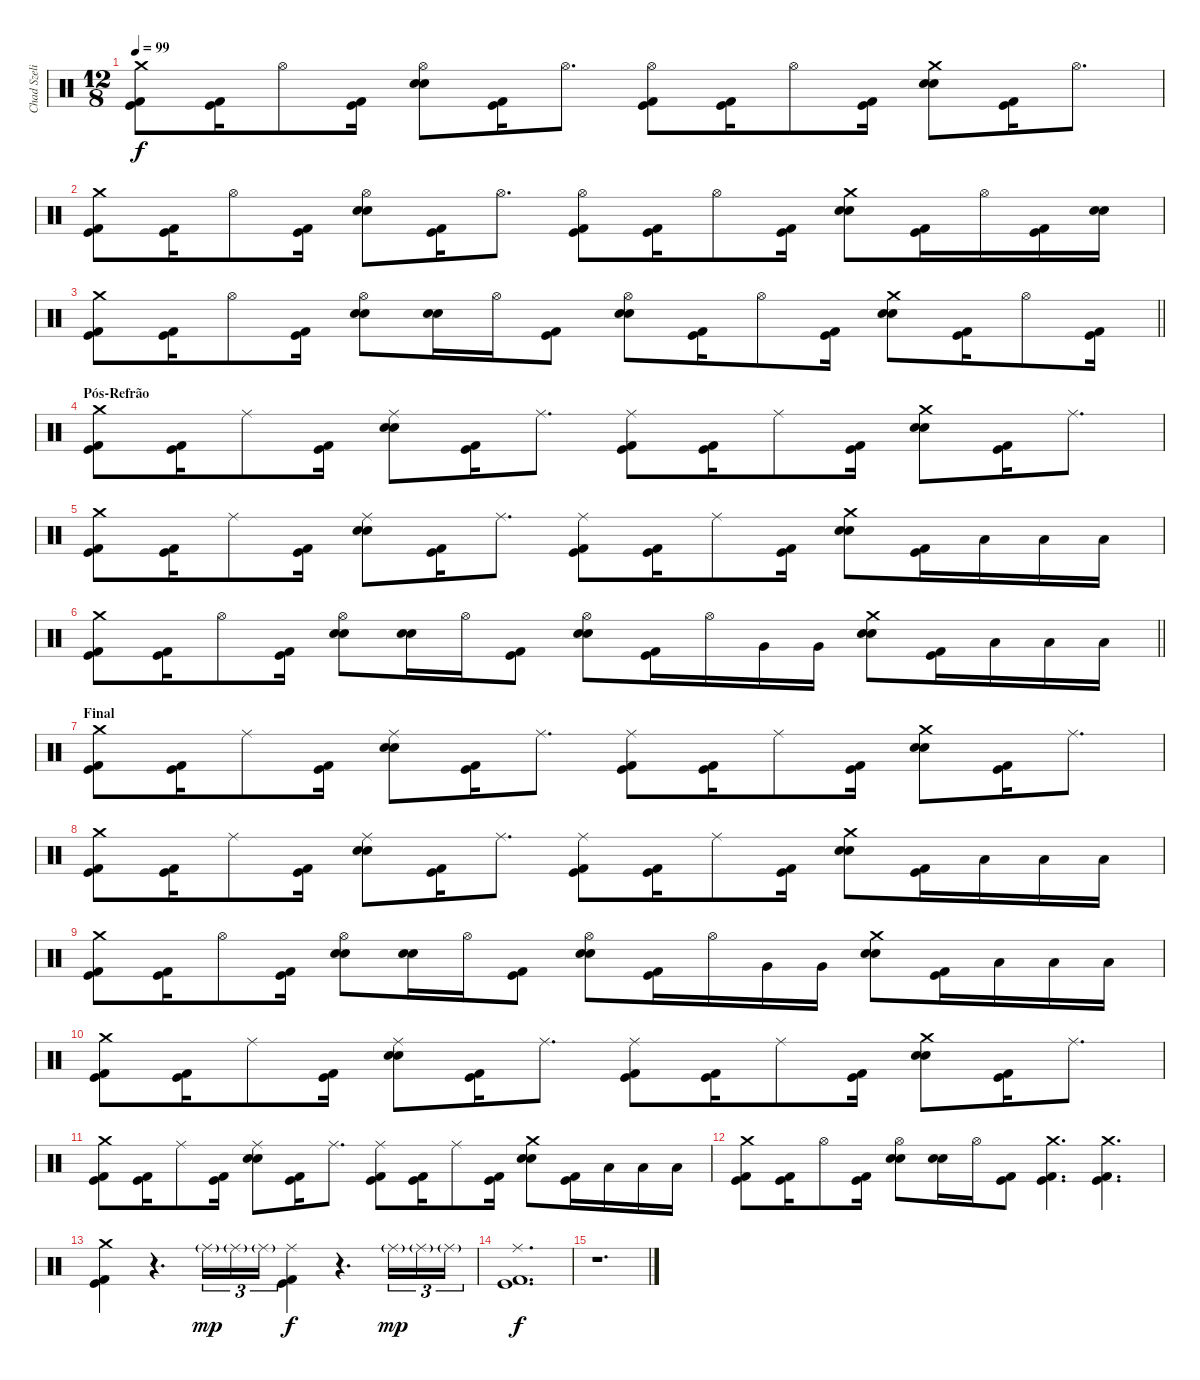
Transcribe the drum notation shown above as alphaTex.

\track ("Chad Szeliga" "Chad Szeli") {instrument percussion}
\staff {score}
\articulation defaults
\ts (12 8)
\tempo 99
\clef neutral
\ks c
("Crash medium (hit)" "Kick (hit) 2" "Kick (hit)").8{dy f} ("Kick (hit) 2" "Kick (hit)").16 "Hi-Hat (open)".8 ("Kick (hit) 2" "Kick (hit)").16 ("Snare (hit) 2" "Snare (hit) 2" "Hi-Hat (open)").8 ("Kick (hit) 2" "Kick (hit)").16 "Hi-Hat (open)".8{d} ("Kick (hit) 2" "Kick (hit)" "Hi-Hat (open)").8 ("Kick (hit) 2" "Kick (hit)").16 "Hi-Hat (open)".8 ("Kick (hit) 2" "Kick (hit)").16 ("Crash medium (hit)" "Snare (hit) 2" "Snare (hit) 2").8 ("Kick (hit) 2" "Kick (hit)").16 "Hi-Hat (open)".8{d} |
("Crash medium (hit)" "Kick (hit) 2" "Kick (hit)").8 ("Kick (hit) 2" "Kick (hit)").16 "Hi-Hat (open)".8 ("Kick (hit) 2" "Kick (hit)").16 ("Snare (hit) 2" "Snare (hit) 2" "Hi-Hat (open)").8 ("Kick (hit) 2" "Kick (hit)").16 "Hi-Hat (open)".8{d} ("Kick (hit) 2" "Kick (hit)" "Hi-Hat (open)").8 ("Kick (hit) 2" "Kick (hit)").16 "Hi-Hat (open)".8 ("Kick (hit) 2" "Kick (hit)").16 ("Crash medium (hit)" "Snare (hit) 2" "Snare (hit) 2").8 ("Kick (hit) 2" "Kick (hit)").16 "Hi-Hat (open)".16 ("Kick (hit) 2" "Kick (hit)").16 ("Snare (hit) 2" "Snare (hit) 2").16 |
\barLineRight lightlight
("Crash medium (hit)" "Kick (hit) 2" "Kick (hit)").8 ("Kick (hit) 2" "Kick (hit)").16 "Hi-Hat (open)".8 ("Kick (hit) 2" "Kick (hit)").16 ("Snare (hit) 2" "Snare (hit) 2" "Hi-Hat (open)").8 ("Snare (hit) 2" "Snare (hit) 2").16 "Hi-Hat (open)".16 ("Kick (hit) 2" "Kick (hit)").8 ("Snare (hit) 2" "Snare (hit) 2" "Hi-Hat (open)").8 ("Kick (hit) 2" "Kick (hit)").16 "Hi-Hat (open)".8 ("Kick (hit) 2" "Kick (hit)").16 ("Crash medium (hit)" "Snare (hit) 2" "Snare (hit) 2").8 ("Kick (hit) 2" "Kick (hit)").16 "Hi-Hat (open)".8 ("Kick (hit) 2" "Kick (hit)").16 |
\section ("" "Pós-Refrão")
("Crash medium (hit)" "Kick (hit) 2" "Kick (hit)").8 ("Kick (hit) 2" "Kick (hit)").16 "Ride (middle)".8 ("Kick (hit) 2" "Kick (hit)").16 ("Ride (middle)" "Snare (hit) 2" "Snare (hit) 2").8 ("Kick (hit) 2" "Kick (hit)").16 "Ride (middle)".8{d} ("Ride (middle)" "Kick (hit) 2" "Kick (hit)").8 ("Kick (hit) 2" "Kick (hit)").16 "Ride (middle)".8 ("Kick (hit) 2" "Kick (hit)").16 ("Crash medium (hit)" "Snare (hit) 2" "Snare (hit) 2").8 ("Kick (hit) 2" "Kick (hit)").16 "Ride (middle)".8{d} |
("Crash medium (hit)" "Kick (hit) 2" "Kick (hit)").8 ("Kick (hit) 2" "Kick (hit)").16 "Ride (middle)".8 ("Kick (hit) 2" "Kick (hit)").16 ("Ride (middle)" "Snare (hit) 2" "Snare (hit) 2").8 ("Kick (hit) 2" "Kick (hit)").16 "Ride (middle)".8{d} ("Ride (middle)" "Kick (hit) 2" "Kick (hit)").8 ("Kick (hit) 2" "Kick (hit)").16 "Ride (middle)".8 ("Kick (hit) 2" "Kick (hit)").16 ("Crash medium (hit)" "Snare (hit) 2" "Snare (hit) 2").8 ("Kick (hit) 2" "Kick (hit)").16 "Low Tom (hit)".16 "Low Tom (hit)".16 "Low Tom (hit)".16 |
\barLineRight lightlight
("Crash medium (hit)" "Kick (hit) 2" "Kick (hit)").8 ("Kick (hit) 2" "Kick (hit)").16 "Hi-Hat (open)".8 ("Kick (hit) 2" "Kick (hit)").16 ("Snare (hit) 2" "Snare (hit) 2" "Hi-Hat (open)").8 ("Snare (hit) 2" "Snare (hit) 2").16 "Hi-Hat (open)".16 ("Kick (hit) 2" "Kick (hit)").8 ("Snare (hit) 2" "Snare (hit) 2" "Hi-Hat (open)").8 ("Kick (hit) 2" "Kick (hit)").16 "Hi-Hat (open)".16 "Very Low Tom (hit)".16 "Very Low Tom (hit)".16 ("Crash medium (hit)" "Snare (hit) 2" "Snare (hit) 2").8 ("Kick (hit) 2" "Kick (hit)").16 "Low Tom (hit)".16 "Low Tom (hit)".16 "Low Tom (hit)".16 |
\section ("" "Final")
("Crash medium (hit)" "Kick (hit) 2" "Kick (hit)").8 ("Kick (hit) 2" "Kick (hit)").16 "Ride (middle)".8 ("Kick (hit) 2" "Kick (hit)").16 ("Ride (middle)" "Snare (hit) 2" "Snare (hit) 2").8 ("Kick (hit) 2" "Kick (hit)").16 "Ride (middle)".8{d} ("Ride (middle)" "Kick (hit) 2" "Kick (hit)").8 ("Kick (hit) 2" "Kick (hit)").16 "Ride (middle)".8 ("Kick (hit) 2" "Kick (hit)").16 ("Crash medium (hit)" "Snare (hit) 2" "Snare (hit) 2").8 ("Kick (hit) 2" "Kick (hit)").16 "Ride (middle)".8{d} |
("Crash medium (hit)" "Kick (hit) 2" "Kick (hit)").8 ("Kick (hit) 2" "Kick (hit)").16 "Ride (middle)".8 ("Kick (hit) 2" "Kick (hit)").16 ("Ride (middle)" "Snare (hit) 2" "Snare (hit) 2").8 ("Kick (hit) 2" "Kick (hit)").16 "Ride (middle)".8{d} ("Ride (middle)" "Kick (hit) 2" "Kick (hit)").8 ("Kick (hit) 2" "Kick (hit)").16 "Ride (middle)".8 ("Kick (hit) 2" "Kick (hit)").16 ("Crash medium (hit)" "Snare (hit) 2" "Snare (hit) 2").8 ("Kick (hit) 2" "Kick (hit)").16 "Low Tom (hit)".16 "Low Tom (hit)".16 "Low Tom (hit)".16 |
("Crash medium (hit)" "Kick (hit) 2" "Kick (hit)").8 ("Kick (hit) 2" "Kick (hit)").16 "Hi-Hat (open)".8 ("Kick (hit) 2" "Kick (hit)").16 ("Snare (hit) 2" "Snare (hit) 2" "Hi-Hat (open)").8 ("Snare (hit) 2" "Snare (hit) 2").16 "Hi-Hat (open)".16 ("Kick (hit) 2" "Kick (hit)").8 ("Snare (hit) 2" "Snare (hit) 2" "Hi-Hat (open)").8 ("Kick (hit) 2" "Kick (hit)").16 "Hi-Hat (open)".16 "Very Low Tom (hit)".16 "Very Low Tom (hit)".16 ("Crash medium (hit)" "Snare (hit) 2" "Snare (hit) 2").8 ("Kick (hit) 2" "Kick (hit)").16 "Low Tom (hit)".16 "Low Tom (hit)".16 "Low Tom (hit)".16 |
("Crash medium (hit)" "Kick (hit) 2" "Kick (hit)").8 ("Kick (hit) 2" "Kick (hit)").16 "Ride (middle)".8 ("Kick (hit) 2" "Kick (hit)").16 ("Ride (middle)" "Snare (hit) 2" "Snare (hit) 2").8 ("Kick (hit) 2" "Kick (hit)").16 "Ride (middle)".8{d} ("Ride (middle)" "Kick (hit) 2" "Kick (hit)").8 ("Kick (hit) 2" "Kick (hit)").16 "Ride (middle)".8 ("Kick (hit) 2" "Kick (hit)").16 ("Crash medium (hit)" "Snare (hit) 2" "Snare (hit) 2").8 ("Kick (hit) 2" "Kick (hit)").16 "Ride (middle)".8{d} |
("Crash medium (hit)" "Kick (hit) 2" "Kick (hit)").8 ("Kick (hit) 2" "Kick (hit)").16 "Ride (middle)".8 ("Kick (hit) 2" "Kick (hit)").16 ("Ride (middle)" "Snare (hit) 2" "Snare (hit) 2").8 ("Kick (hit) 2" "Kick (hit)").16 "Ride (middle)".8{d} ("Ride (middle)" "Kick (hit) 2" "Kick (hit)").8 ("Kick (hit) 2" "Kick (hit)").16 "Ride (middle)".8 ("Kick (hit) 2" "Kick (hit)").16 ("Crash medium (hit)" "Snare (hit) 2" "Snare (hit) 2").8 ("Kick (hit) 2" "Kick (hit)").16 "Low Tom (hit)".16 "Low Tom (hit)".16 "Low Tom (hit)".16 |
("Crash medium (hit)" "Kick (hit) 2" "Kick (hit)").8 ("Kick (hit) 2" "Kick (hit)").16 "Hi-Hat (open)".8 ("Kick (hit) 2" "Kick (hit)").16 ("Snare (hit) 2" "Snare (hit) 2" "Hi-Hat (open)").8 ("Snare (hit) 2" "Snare (hit) 2").16 "Hi-Hat (open)".16 ("Kick (hit) 2" "Kick (hit)").8 ("Crash medium (hit)" "Kick (hit) 2" "Kick (hit)").4{d} ("Crash medium (hit)" "Kick (hit) 2" "Kick (hit)").4{d} |
("Crash medium (hit)" "Kick (hit) 2" "Kick (hit)").4 r.4{d} "Ride (middle)"{g}.16{tu (3 2) dy mp} "Ride (middle)"{g}.16{tu (3 2)} "Ride (middle)"{g}.16{tu (3 2)} ("Ride (middle)" "Kick (hit) 2" "Kick (hit)").4{dy f} r.4{d} "Ride (middle)"{g}.16{tu (3 2) dy mp} "Ride (middle)"{g}.16{tu (3 2)} "Ride (middle)"{g}.16{tu (3 2)} |
("Ride (middle)" "Kick (hit) 2" "Kick (hit)").1{d dy f} |
r.1{d}
